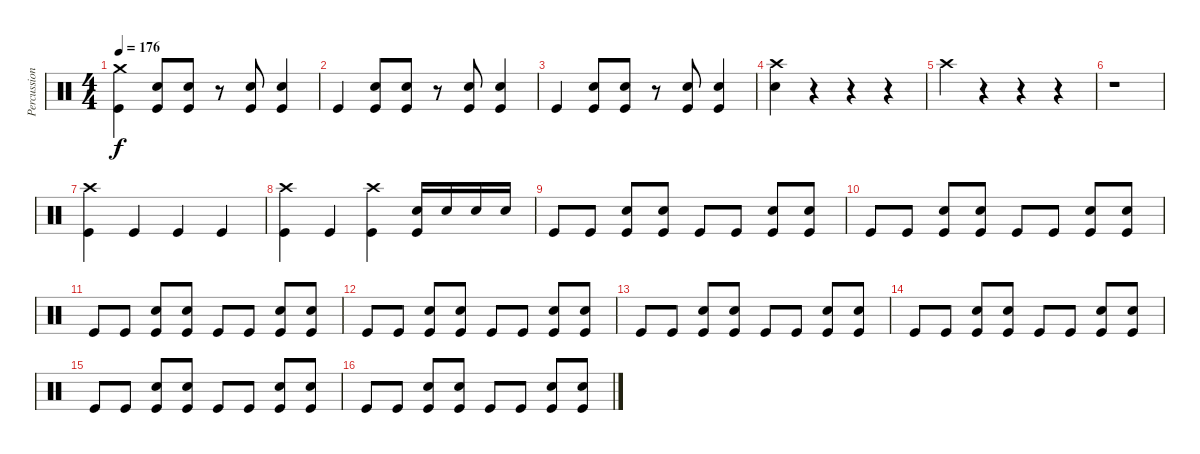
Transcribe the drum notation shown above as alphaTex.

\track ("Percussion" "Percussion") {instrument percussion}
\staff {score}
\articulation defaults
\ts (4 4)
\tempo 176
\clef neutral
\ks c
("Crash medium (hit)" "Kick (hit)").4{dy f} ("Snare (hit) 2" "Kick (hit)").8 ("Snare (hit) 2" "Kick (hit)").8 r.8 ("Snare (hit) 2" "Kick (hit)").8 ("Snare (hit) 2" "Kick (hit)").4 |
"Kick (hit)".4 ("Snare (hit) 2" "Kick (hit)").8 ("Snare (hit) 2" "Kick (hit)").8 r.8 ("Snare (hit) 2" "Kick (hit)").8 ("Snare (hit) 2" "Kick (hit)").4 |
"Kick (hit)".4 ("Snare (hit) 2" "Kick (hit)").8 ("Snare (hit) 2" "Kick (hit)").8 r.8 ("Snare (hit) 2" "Kick (hit)").8 ("Snare (hit) 2" "Kick (hit)").4 |
("Crash high (hit)" "Snare (hit) 2").4 r.4 r.4 r.4 |
"Crash high (hit)".4 r.4 r.4 r.4 |
r.1 |
("Crash high (hit)" "Kick (hit)").4 "Kick (hit)".4 "Kick (hit)".4 "Kick (hit)".4 |
("Crash high (hit)" "Kick (hit)").4 "Kick (hit)".4 ("Crash high (hit)" "Kick (hit)").4 ("Kick (hit)" "Snare (hit) 2").16 "Snare (hit) 2".16 "Snare (hit) 2".16 "Snare (hit) 2".16 |
"Kick (hit)".8 "Kick (hit)".8 ("Kick (hit)" "Snare (hit) 2").8 ("Kick (hit)" "Snare (hit) 2").8 "Kick (hit)".8 "Kick (hit)".8 ("Kick (hit)" "Snare (hit) 2").8 ("Kick (hit)" "Snare (hit) 2").8 |
"Kick (hit)".8 "Kick (hit)".8 ("Kick (hit)" "Snare (hit) 2").8 ("Kick (hit)" "Snare (hit) 2").8 "Kick (hit)".8 "Kick (hit)".8 ("Kick (hit)" "Snare (hit) 2").8 ("Kick (hit)" "Snare (hit) 2").8 |
"Kick (hit)".8 "Kick (hit)".8 ("Kick (hit)" "Snare (hit) 2").8 ("Kick (hit)" "Snare (hit) 2").8 "Kick (hit)".8 "Kick (hit)".8 ("Kick (hit)" "Snare (hit) 2").8 ("Kick (hit)" "Snare (hit) 2").8 |
"Kick (hit)".8 "Kick (hit)".8 ("Kick (hit)" "Snare (hit) 2").8 ("Kick (hit)" "Snare (hit) 2").8 "Kick (hit)".8 "Kick (hit)".8 ("Kick (hit)" "Snare (hit) 2").8 ("Kick (hit)" "Snare (hit) 2").8 |
"Kick (hit)".8 "Kick (hit)".8 ("Kick (hit)" "Snare (hit) 2").8 ("Kick (hit)" "Snare (hit) 2").8 "Kick (hit)".8 "Kick (hit)".8 ("Kick (hit)" "Snare (hit) 2").8 ("Kick (hit)" "Snare (hit) 2").8 |
"Kick (hit)".8 "Kick (hit)".8 ("Kick (hit)" "Snare (hit) 2").8 ("Kick (hit)" "Snare (hit) 2").8 "Kick (hit)".8 "Kick (hit)".8 ("Kick (hit)" "Snare (hit) 2").8 ("Kick (hit)" "Snare (hit) 2").8 |
"Kick (hit)".8 "Kick (hit)".8 ("Kick (hit)" "Snare (hit) 2").8 ("Kick (hit)" "Snare (hit) 2").8 "Kick (hit)".8 "Kick (hit)".8 ("Kick (hit)" "Snare (hit) 2").8 ("Kick (hit)" "Snare (hit) 2").8 |
"Kick (hit)".8 "Kick (hit)".8 ("Kick (hit)" "Snare (hit) 2").8 ("Kick (hit)" "Snare (hit) 2").8 "Kick (hit)".8 "Kick (hit)".8 ("Kick (hit)" "Snare (hit) 2").8 ("Kick (hit)" "Snare (hit) 2").8
